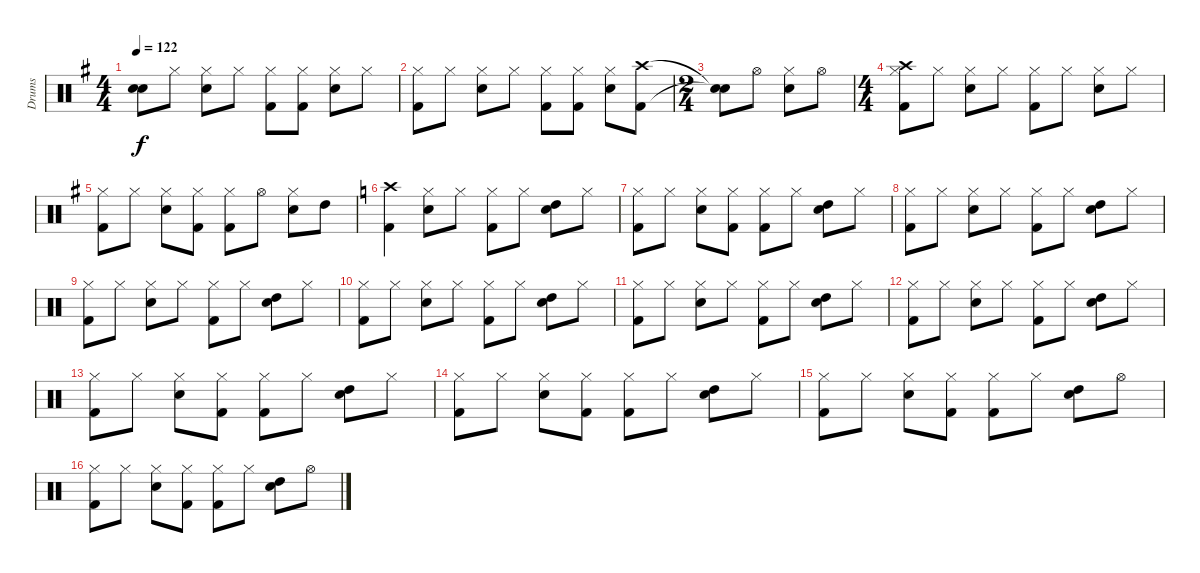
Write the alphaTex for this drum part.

\track ("Drums" "Drums") {instrument percussion}
\staff {score}
\articulation defaults
\ts (4 4)
\tempo 122
\clef neutral
\ks g
("Snare (hit)"{t} "Snare (hit)"{t}).8{dy f} "Hi-Hat (closed)".8 ("Hi-Hat (closed)" "Electric Snare (hit)").8 "Hi-Hat (closed)".8 ("Hi-Hat (closed)" "Kick (hit) 2").8 ("Hi-Hat (closed)" "Kick (hit) 2").8 ("Hi-Hat (closed)" "Electric Snare (hit)").8 "Hi-Hat (closed)".8 |
("Hi-Hat (closed)" "Kick (hit) 2").8 "Hi-Hat (closed)".8 ("Hi-Hat (closed)" "Electric Snare (hit)").8 "Hi-Hat (closed)".8 ("Hi-Hat (closed)" "Kick (hit) 2").8 ("Hi-Hat (closed)" "Kick (hit) 2").8 ("Hi-Hat (closed)" "Electric Snare (hit)").8 ("Crash high (hit)" "Kick (hit) 2").8 |
\ts (2 4)
("Snare (hit)"{t} "Snare (hit)"{t}).8 "Hi-Hat (open)".8 ("Hi-Hat (closed)" "Electric Snare (hit)").8 "Hi-Hat (open)".8 |
\ts (4 4)
("Hi-Hat (closed)" "Crash high (hit)" "Kick (hit) 2").8 "Hi-Hat (closed)".8 ("Hi-Hat (closed)" "Electric Snare (hit)").8 "Hi-Hat (closed)".8 ("Hi-Hat (closed)" "Kick (hit) 2").8 "Hi-Hat (closed)".8 ("Hi-Hat (closed)" "Electric Snare (hit)").8 "Hi-Hat (closed)".8 |
("Hi-Hat (closed)" "Kick (hit) 2").8 "Hi-Hat (closed)".8 ("Hi-Hat (closed)" "Electric Snare (hit)").8 ("Hi-Hat (closed)" "Kick (hit) 2").8 ("Hi-Hat (closed)" "Kick (hit) 2").8 "Hi-Hat (open)".8 ("Hi-Hat (closed)" "Electric Snare (hit)").8 "High Tom (hit)".8 |
\ks c
("Crash high (hit)" "Kick (hit) 2").4 ("Hi-Hat (closed)" "Electric Snare (hit)").8 "Hi-Hat (closed)".8 ("Hi-Hat (closed)" "Kick (hit) 2").8 "Hi-Hat (closed)".8 ("Electric Snare (hit)" "High Tom (hit)").8 "Hi-Hat (closed)".8 |
("Hi-Hat (closed)" "Kick (hit) 2").8 "Hi-Hat (closed)".8 ("Hi-Hat (closed)" "Electric Snare (hit)").8 ("Hi-Hat (closed)" "Kick (hit) 2").8 ("Hi-Hat (closed)" "Kick (hit) 2").8 "Hi-Hat (closed)".8 ("Electric Snare (hit)" "High Tom (hit)").8 "Hi-Hat (closed)".8 |
("Hi-Hat (closed)" "Kick (hit) 2").8 "Hi-Hat (closed)".8 ("Hi-Hat (closed)" "Electric Snare (hit)").8 "Hi-Hat (closed)".8 ("Hi-Hat (closed)" "Kick (hit) 2").8 "Hi-Hat (closed)".8 ("Electric Snare (hit)" "High Tom (hit)").8 "Hi-Hat (closed)".8 |
("Hi-Hat (closed)" "Kick (hit) 2").8 "Hi-Hat (closed)".8 ("Hi-Hat (closed)" "Electric Snare (hit)").8 "Hi-Hat (closed)".8 ("Hi-Hat (closed)" "Kick (hit) 2").8 "Hi-Hat (closed)".8 ("Electric Snare (hit)" "High Tom (hit)").8 "Hi-Hat (closed)".8 |
("Hi-Hat (closed)" "Kick (hit) 2").8 "Hi-Hat (closed)".8 ("Hi-Hat (closed)" "Electric Snare (hit)").8 "Hi-Hat (closed)".8 ("Hi-Hat (closed)" "Kick (hit) 2").8 "Hi-Hat (closed)".8 ("Electric Snare (hit)" "High Tom (hit)").8 "Hi-Hat (closed)".8 |
("Hi-Hat (closed)" "Kick (hit) 2").8 "Hi-Hat (closed)".8 ("Hi-Hat (closed)" "Electric Snare (hit)").8 "Hi-Hat (closed)".8 ("Hi-Hat (closed)" "Kick (hit) 2").8 "Hi-Hat (closed)".8 ("Electric Snare (hit)" "High Tom (hit)").8 "Hi-Hat (closed)".8 |
("Hi-Hat (closed)" "Kick (hit) 2").8 "Hi-Hat (closed)".8 ("Hi-Hat (closed)" "Electric Snare (hit)").8 "Hi-Hat (closed)".8 ("Hi-Hat (closed)" "Kick (hit) 2").8 "Hi-Hat (closed)".8 ("Electric Snare (hit)" "High Tom (hit)").8 "Hi-Hat (closed)".8 |
("Hi-Hat (closed)" "Kick (hit) 2").8 "Hi-Hat (closed)".8 ("Hi-Hat (closed)" "Electric Snare (hit)").8 ("Hi-Hat (closed)" "Kick (hit) 2").8 ("Hi-Hat (closed)" "Kick (hit) 2").8 "Hi-Hat (closed)".8 ("Electric Snare (hit)" "High Tom (hit)").8 "Hi-Hat (closed)".8 |
("Hi-Hat (closed)" "Kick (hit) 2").8 "Hi-Hat (closed)".8 ("Hi-Hat (closed)" "Electric Snare (hit)").8 ("Hi-Hat (closed)" "Kick (hit) 2").8 ("Hi-Hat (closed)" "Kick (hit) 2").8 "Hi-Hat (closed)".8 ("Electric Snare (hit)" "High Tom (hit)").8 "Hi-Hat (closed)".8 |
("Hi-Hat (closed)" "Kick (hit) 2").8 "Hi-Hat (closed)".8 ("Hi-Hat (closed)" "Electric Snare (hit)").8 ("Hi-Hat (closed)" "Kick (hit) 2").8 ("Hi-Hat (closed)" "Kick (hit) 2").8 "Hi-Hat (closed)".8 ("Electric Snare (hit)" "High Tom (hit)").8 "Hi-Hat (open)".8 |
("Hi-Hat (closed)" "Kick (hit) 2").8 "Hi-Hat (closed)".8 ("Hi-Hat (closed)" "Electric Snare (hit)").8 ("Hi-Hat (closed)" "Kick (hit) 2").8 ("Hi-Hat (closed)" "Kick (hit) 2").8 "Hi-Hat (closed)".8 ("Electric Snare (hit)" "High Tom (hit)").8 "Hi-Hat (open)".8
